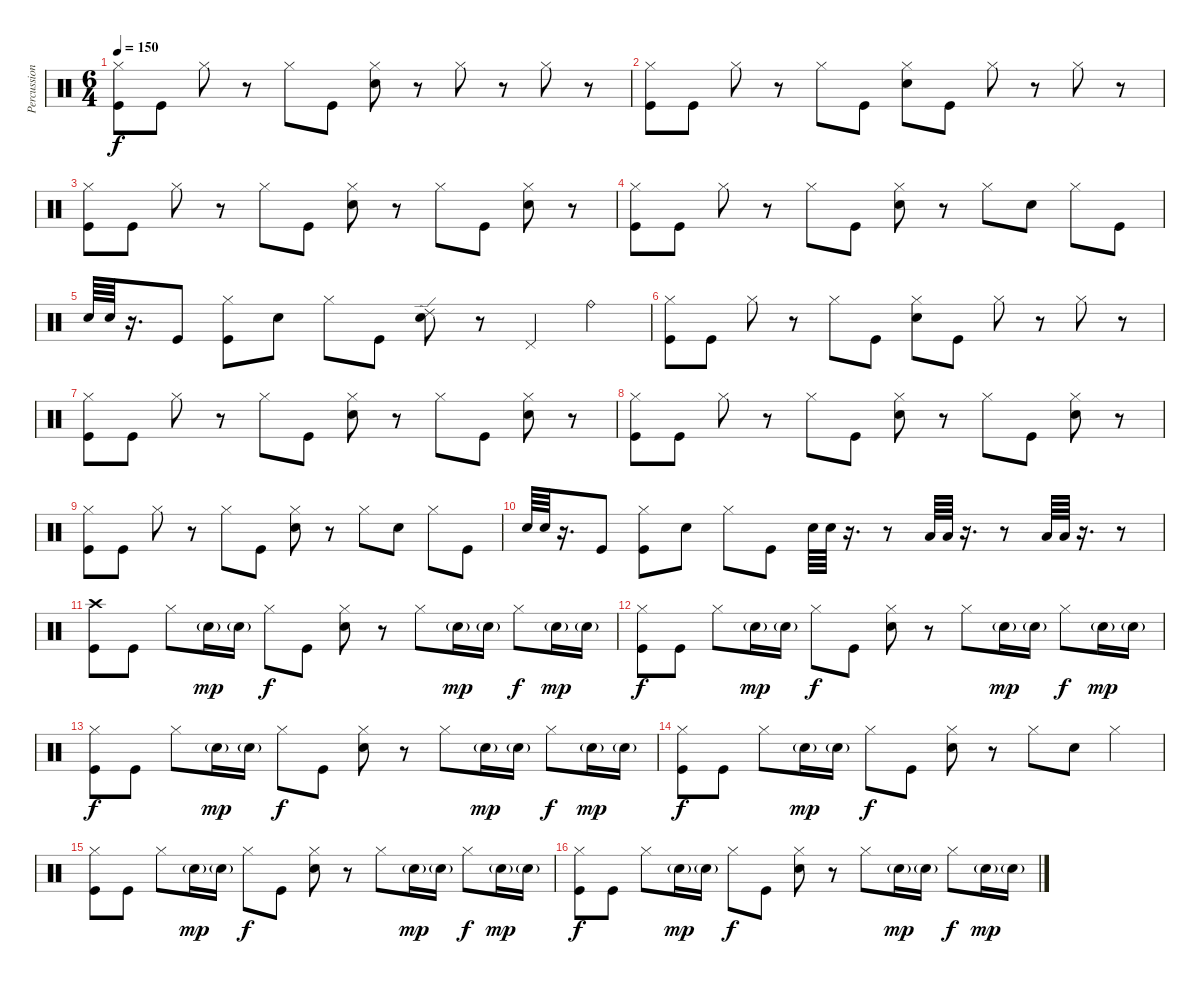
\track ("Percussion" "Percussion") {instrument percussion}
\staff {score}
\articulation defaults
\ts (6 4)
\tempo 150
\clef neutral
\ks c
("Hi-Hat (closed)" "Kick (hit)").8{dy f} "Kick (hit)".8 "Hi-Hat (closed)".8 r.8 "Hi-Hat (closed)".8 "Kick (hit)".8 ("Hi-Hat (closed)" "Snare (hit) 2").8 r.8 "Hi-Hat (closed)".8 r.8 "Hi-Hat (closed)".8 r.8 |
("Hi-Hat (closed)" "Kick (hit)").8 "Kick (hit)".8 "Hi-Hat (closed)".8 r.8 "Hi-Hat (closed)".8 "Kick (hit)".8 ("Hi-Hat (closed)" "Snare (hit) 2").8 "Kick (hit)".8 "Hi-Hat (closed)".8 r.8 "Hi-Hat (closed)".8 r.8 |
("Hi-Hat (closed)" "Kick (hit)").8 "Kick (hit)".8 "Hi-Hat (closed)".8 r.8 "Hi-Hat (closed)".8 "Kick (hit)".8 ("Hi-Hat (closed)" "Snare (hit) 2").8 r.8 "Hi-Hat (closed)".8 "Kick (hit)".8 ("Hi-Hat (closed)" "Snare (hit) 2").8 r.8 |
("Hi-Hat (closed)" "Kick (hit)").8 "Kick (hit)".8 "Hi-Hat (closed)".8 r.8 "Hi-Hat (closed)".8 "Kick (hit)".8 ("Hi-Hat (closed)" "Snare (hit) 2").8 r.8 "Hi-Hat (closed)".8 "Snare (hit) 2".8 "Hi-Hat (closed)".8 "Kick (hit)".8 |
"Snare (hit) 2".64 "Snare (hit) 2".64 r.16{d} "Kick (hit)".8 ("Hi-Hat (closed)" "Kick (hit)").8 "Snare (hit) 2".8 "Hi-Hat (closed)".8 "Kick (hit)".8 ("Ride (edge) 2" "Snare (hit) 2").8 r.8 "Pedal Hi-Hat (hit)".4 "Ride (bell)".4 |
("Hi-Hat (closed)" "Kick (hit)").8 "Kick (hit)".8 "Hi-Hat (closed)".8 r.8 "Hi-Hat (closed)".8 "Kick (hit)".8 ("Hi-Hat (closed)" "Snare (hit) 2").8 "Kick (hit)".8 "Hi-Hat (closed)".8 r.8 "Hi-Hat (closed)".8 r.8 |
("Hi-Hat (closed)" "Kick (hit)").8 "Kick (hit)".8 "Hi-Hat (closed)".8 r.8 "Hi-Hat (closed)".8 "Kick (hit)".8 ("Hi-Hat (closed)" "Snare (hit) 2").8 r.8 "Hi-Hat (closed)".8 "Kick (hit)".8 ("Hi-Hat (closed)" "Snare (hit) 2").8 r.8 |
("Hi-Hat (closed)" "Kick (hit)").8 "Kick (hit)".8 "Hi-Hat (closed)".8 r.8 "Hi-Hat (closed)".8 "Kick (hit)".8 ("Hi-Hat (closed)" "Snare (hit) 2").8 r.8 "Hi-Hat (closed)".8 "Kick (hit)".8 ("Hi-Hat (closed)" "Snare (hit) 2").8 r.8 |
("Hi-Hat (closed)" "Kick (hit)").8 "Kick (hit)".8 "Hi-Hat (closed)".8 r.8 "Hi-Hat (closed)".8 "Kick (hit)".8 ("Hi-Hat (closed)" "Snare (hit) 2").8 r.8 "Hi-Hat (closed)".8 "Snare (hit) 2".8 "Hi-Hat (closed)".8 "Kick (hit)".8 |
"Snare (hit) 2".64 "Snare (hit) 2".64 r.16{d} "Kick (hit)".8 ("Hi-Hat (closed)" "Kick (hit)").8 "Snare (hit) 2".8 "Hi-Hat (closed)".8 "Kick (hit)".8 "Snare (hit) 2".64 "Snare (hit) 2".64 r.16{d} r.8 "Low Tom (hit)".64 "Low Tom (hit)".64 r.16{d} r.8 "Low Floor Tom (hit)".64 "Low Floor Tom (hit)".64 r.16{d} r.8 |
("Crash high (hit)" "Kick (hit)").8 "Kick (hit)".8 "Hi-Hat (closed)".8 "Snare (hit) 2"{g}.16{dy mp} "Snare (hit) 2"{g}.16 "Hi-Hat (closed)".8{dy f} "Kick (hit)".8 ("Hi-Hat (closed)" "Snare (hit) 2").8 r.8 "Hi-Hat (closed)".8 "Snare (hit) 2"{g}.16{dy mp} "Snare (hit) 2"{g}.16 "Hi-Hat (closed)".8{dy f} "Snare (hit) 2"{g}.16{dy mp} "Snare (hit) 2"{g}.16 |
("Hi-Hat (closed)" "Kick (hit)").8{dy f} "Kick (hit)".8 "Hi-Hat (closed)".8 "Snare (hit) 2"{g}.16{dy mp} "Snare (hit) 2"{g}.16 "Hi-Hat (closed)".8{dy f} "Kick (hit)".8 ("Hi-Hat (closed)" "Snare (hit) 2").8 r.8 "Hi-Hat (closed)".8 "Snare (hit) 2"{g}.16{dy mp} "Snare (hit) 2"{g}.16 "Hi-Hat (closed)".8{dy f} "Snare (hit) 2"{g}.16{dy mp} "Snare (hit) 2"{g}.16 |
("Hi-Hat (closed)" "Kick (hit)").8{dy f} "Kick (hit)".8 "Hi-Hat (closed)".8 "Snare (hit) 2"{g}.16{dy mp} "Snare (hit) 2"{g}.16 "Hi-Hat (closed)".8{dy f} "Kick (hit)".8 ("Hi-Hat (closed)" "Snare (hit) 2").8 r.8 "Hi-Hat (closed)".8 "Snare (hit) 2"{g}.16{dy mp} "Snare (hit) 2"{g}.16 "Hi-Hat (closed)".8{dy f} "Snare (hit) 2"{g}.16{dy mp} "Snare (hit) 2"{g}.16 |
("Hi-Hat (closed)" "Kick (hit)").8{dy f} "Kick (hit)".8 "Hi-Hat (closed)".8 "Snare (hit) 2"{g}.16{dy mp} "Snare (hit) 2"{g}.16 "Hi-Hat (closed)".8{dy f} "Kick (hit)".8 ("Hi-Hat (closed)" "Snare (hit) 2").8 r.8 "Hi-Hat (closed)".8 "Snare (hit) 2".8 "Hi-Hat (closed)".4 |
("Hi-Hat (closed)" "Kick (hit)").8 "Kick (hit)".8 "Hi-Hat (closed)".8 "Snare (hit) 2"{g}.16{dy mp} "Snare (hit) 2"{g}.16 "Hi-Hat (closed)".8{dy f} "Kick (hit)".8 ("Hi-Hat (closed)" "Snare (hit) 2").8 r.8 "Hi-Hat (closed)".8 "Snare (hit) 2"{g}.16{dy mp} "Snare (hit) 2"{g}.16 "Hi-Hat (closed)".8{dy f} "Snare (hit) 2"{g}.16{dy mp} "Snare (hit) 2"{g}.16 |
("Hi-Hat (closed)" "Kick (hit)").8{dy f} "Kick (hit)".8 "Hi-Hat (closed)".8 "Snare (hit) 2"{g}.16{dy mp} "Snare (hit) 2"{g}.16 "Hi-Hat (closed)".8{dy f} "Kick (hit)".8 ("Hi-Hat (closed)" "Snare (hit) 2").8 r.8 "Hi-Hat (closed)".8 "Snare (hit) 2"{g}.16{dy mp} "Snare (hit) 2"{g}.16 "Hi-Hat (closed)".8{dy f} "Snare (hit) 2"{g}.16{dy mp} "Snare (hit) 2"{g}.16
